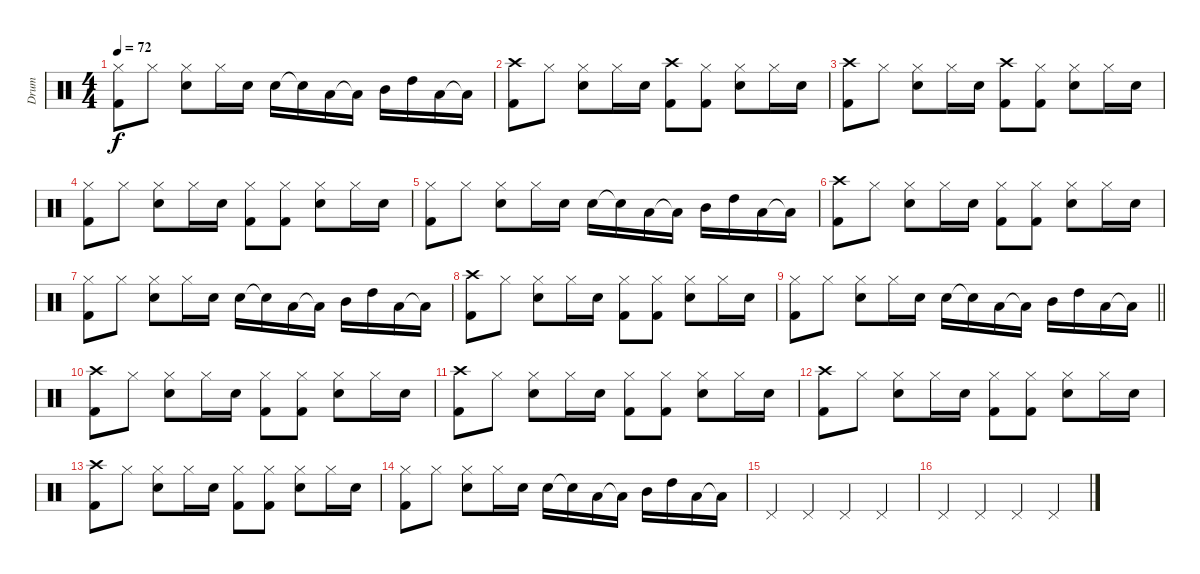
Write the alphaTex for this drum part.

\track ("Drum" "Drum") {instrument percussion}
\staff {score}
\articulation defaults
\ts (4 4)
\tempo 72
\clef neutral
\ks c
("Hi-Hat (closed)" "Kick (hit) 2").8{dy f} "Hi-Hat (closed)".8 ("Hi-Hat (closed)" "Electric Snare (hit)").8 "Hi-Hat (closed)".16 "Electric Snare (hit)".16 "Electric Snare (hit)".16 "Electric Snare (hit)"{t}.16 "Low Tom (hit)".16 "Low Tom (hit)"{t}.16 "Mid Tom (hit)".16 "High Tom (hit)".16 "Low Tom (hit)".16 "Low Tom (hit)"{t}.16 |
("Crash high (hit)" "Kick (hit) 2").8 "Hi-Hat (closed)".8 ("Hi-Hat (closed)" "Electric Snare (hit)").8 "Hi-Hat (closed)".16 "Electric Snare (hit)".16 ("Crash high (hit)" "Kick (hit) 2").8 ("Hi-Hat (closed)" "Kick (hit) 2").8 ("Electric Snare (hit)" "Hi-Hat (closed)").8 "Hi-Hat (closed)".16 "Electric Snare (hit)".16 |
("Crash high (hit)" "Kick (hit) 2").8 "Hi-Hat (closed)".8 ("Hi-Hat (closed)" "Electric Snare (hit)").8 "Hi-Hat (closed)".16 "Electric Snare (hit)".16 ("Crash high (hit)" "Kick (hit) 2").8 ("Hi-Hat (closed)" "Kick (hit) 2").8 ("Electric Snare (hit)" "Hi-Hat (closed)").8 "Hi-Hat (closed)".16 "Electric Snare (hit)".16 |
("Hi-Hat (closed)" "Kick (hit) 2").8 "Hi-Hat (closed)".8 ("Hi-Hat (closed)" "Electric Snare (hit)").8 "Hi-Hat (closed)".16 "Electric Snare (hit)".16 ("Hi-Hat (closed)" "Kick (hit) 2").8 ("Hi-Hat (closed)" "Kick (hit) 2").8 ("Electric Snare (hit)" "Hi-Hat (closed)").8 "Hi-Hat (closed)".16 "Electric Snare (hit)".16 |
("Hi-Hat (closed)" "Kick (hit) 2").8 "Hi-Hat (closed)".8 ("Hi-Hat (closed)" "Electric Snare (hit)").8 "Hi-Hat (closed)".16 "Electric Snare (hit)".16 "Electric Snare (hit)".16 "Electric Snare (hit)"{t}.16 "Low Tom (hit)".16 "Low Tom (hit)"{t}.16 "Mid Tom (hit)".16 "High Tom (hit)".16 "Low Tom (hit)".16 "Low Tom (hit)"{t}.16 |
("Crash high (hit)" "Kick (hit) 2").8 "Hi-Hat (closed)".8 ("Hi-Hat (closed)" "Electric Snare (hit)").8 "Hi-Hat (closed)".16 "Electric Snare (hit)".16 ("Hi-Hat (closed)" "Kick (hit) 2").8 ("Hi-Hat (closed)" "Kick (hit) 2").8 ("Electric Snare (hit)" "Hi-Hat (closed)").8 "Hi-Hat (closed)".16 "Electric Snare (hit)".16 |
("Hi-Hat (closed)" "Kick (hit) 2").8 "Hi-Hat (closed)".8 ("Hi-Hat (closed)" "Electric Snare (hit)").8 "Hi-Hat (closed)".16 "Electric Snare (hit)".16 "Electric Snare (hit)".16 "Electric Snare (hit)"{t}.16 "Low Tom (hit)".16 "Low Tom (hit)"{t}.16 "Mid Tom (hit)".16 "High Tom (hit)".16 "Low Tom (hit)".16 "Low Tom (hit)"{t}.16 |
("Crash high (hit)" "Kick (hit) 2").8 "Hi-Hat (closed)".8 ("Hi-Hat (closed)" "Electric Snare (hit)").8 "Hi-Hat (closed)".16 "Electric Snare (hit)".16 ("Hi-Hat (closed)" "Kick (hit) 2").8 ("Hi-Hat (closed)" "Kick (hit) 2").8 ("Electric Snare (hit)" "Hi-Hat (closed)").8 "Hi-Hat (closed)".16 "Electric Snare (hit)".16 |
\barLineRight lightlight
("Hi-Hat (closed)" "Kick (hit) 2").8 "Hi-Hat (closed)".8 ("Hi-Hat (closed)" "Electric Snare (hit)").8 "Hi-Hat (closed)".16 "Electric Snare (hit)".16 "Electric Snare (hit)".16 "Electric Snare (hit)"{t}.16 "Low Tom (hit)".16 "Low Tom (hit)"{t}.16 "Mid Tom (hit)".16 "High Tom (hit)".16 "Low Tom (hit)".16 "Low Tom (hit)"{t}.16 |
\section ("" "")
("Crash high (hit)" "Kick (hit) 2").8 "Hi-Hat (closed)".8 ("Hi-Hat (closed)" "Electric Snare (hit)").8 "Hi-Hat (closed)".16 "Electric Snare (hit)".16 ("Hi-Hat (closed)" "Kick (hit) 2").8 ("Hi-Hat (closed)" "Kick (hit) 2").8 ("Electric Snare (hit)" "Hi-Hat (closed)").8 "Hi-Hat (closed)".16 "Electric Snare (hit)".16 |
("Crash high (hit)" "Kick (hit) 2").8 "Hi-Hat (closed)".8 ("Hi-Hat (closed)" "Electric Snare (hit)").8 "Hi-Hat (closed)".16 "Electric Snare (hit)".16 ("Hi-Hat (closed)" "Kick (hit) 2").8 ("Hi-Hat (closed)" "Kick (hit) 2").8 ("Electric Snare (hit)" "Hi-Hat (closed)").8 "Hi-Hat (closed)".16 "Electric Snare (hit)".16 |
("Crash high (hit)" "Kick (hit) 2").8 "Hi-Hat (closed)".8 ("Hi-Hat (closed)" "Electric Snare (hit)").8 "Hi-Hat (closed)".16 "Electric Snare (hit)".16 ("Hi-Hat (closed)" "Kick (hit) 2").8 ("Hi-Hat (closed)" "Kick (hit) 2").8 ("Electric Snare (hit)" "Hi-Hat (closed)").8 "Hi-Hat (closed)".16 "Electric Snare (hit)".16 |
("Crash high (hit)" "Kick (hit) 2").8 "Hi-Hat (closed)".8 ("Hi-Hat (closed)" "Electric Snare (hit)").8 "Hi-Hat (closed)".16 "Electric Snare (hit)".16 ("Hi-Hat (closed)" "Kick (hit) 2").8 ("Hi-Hat (closed)" "Kick (hit) 2").8 ("Electric Snare (hit)" "Hi-Hat (closed)").8 "Hi-Hat (closed)".16 "Electric Snare (hit)".16 |
("Hi-Hat (closed)" "Kick (hit) 2").8 "Hi-Hat (closed)".8 ("Hi-Hat (closed)" "Electric Snare (hit)").8 "Hi-Hat (closed)".16 "Electric Snare (hit)".16 "Electric Snare (hit)".16 "Electric Snare (hit)"{t}.16 "Low Tom (hit)".16 "Low Tom (hit)"{t}.16 "Mid Tom (hit)".16 "High Tom (hit)".16 "Low Tom (hit)".16 "Low Tom (hit)"{t}.16 |
"Pedal Hi-Hat (hit)".4 "Pedal Hi-Hat (hit)".4 "Pedal Hi-Hat (hit)".4 "Pedal Hi-Hat (hit)".4 |
"Pedal Hi-Hat (hit)".4 "Pedal Hi-Hat (hit)".4 "Pedal Hi-Hat (hit)".4 "Pedal Hi-Hat (hit)".4
